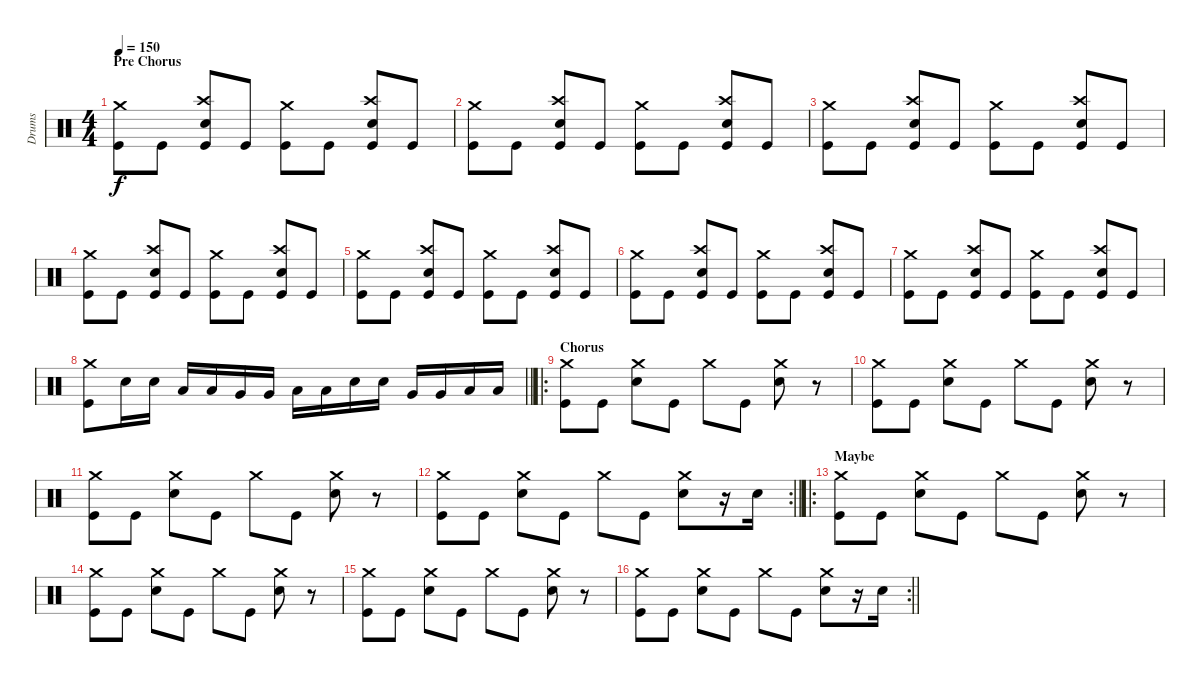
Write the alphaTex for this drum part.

\track ("Drums" "Drums") {instrument percussion}
\staff {score}
\articulation defaults
\ts (4 4)
\section ("" "Pre Chorus")
\tempo 150
\clef neutral
\ks c
("Crash medium (hit)" "Kick (hit)").8{dy f} "Kick (hit)".8 ("Crash high (hit)" "Snare (hit) 2" "Kick (hit)").8 "Kick (hit)".8 ("Crash medium (hit)" "Kick (hit)").8 "Kick (hit)".8 ("Crash high (hit)" "Snare (hit) 2" "Kick (hit)").8 "Kick (hit)".8 |
("Crash medium (hit)" "Kick (hit)").8 "Kick (hit)".8 ("Crash high (hit)" "Snare (hit) 2" "Kick (hit)").8 "Kick (hit)".8 ("Crash medium (hit)" "Kick (hit)").8 "Kick (hit)".8 ("Crash high (hit)" "Snare (hit) 2" "Kick (hit)").8 "Kick (hit)".8 |
("Crash medium (hit)" "Kick (hit)").8 "Kick (hit)".8 ("Crash high (hit)" "Snare (hit) 2" "Kick (hit)").8 "Kick (hit)".8 ("Crash medium (hit)" "Kick (hit)").8 "Kick (hit)".8 ("Crash high (hit)" "Snare (hit) 2" "Kick (hit)").8 "Kick (hit)".8 |
("Crash medium (hit)" "Kick (hit)").8 "Kick (hit)".8 ("Crash high (hit)" "Snare (hit) 2" "Kick (hit)").8 "Kick (hit)".8 ("Crash medium (hit)" "Kick (hit)").8 "Kick (hit)".8 ("Crash high (hit)" "Snare (hit) 2" "Kick (hit)").8 "Kick (hit)".8 |
("Crash medium (hit)" "Kick (hit)").8 "Kick (hit)".8 ("Crash high (hit)" "Snare (hit) 2" "Kick (hit)").8 "Kick (hit)".8 ("Crash medium (hit)" "Kick (hit)").8 "Kick (hit)".8 ("Crash high (hit)" "Snare (hit) 2" "Kick (hit)").8 "Kick (hit)".8 |
("Crash medium (hit)" "Kick (hit)").8 "Kick (hit)".8 ("Crash high (hit)" "Snare (hit) 2" "Kick (hit)").8 "Kick (hit)".8 ("Crash medium (hit)" "Kick (hit)").8 "Kick (hit)".8 ("Crash high (hit)" "Snare (hit) 2" "Kick (hit)").8 "Kick (hit)".8 |
("Crash medium (hit)" "Kick (hit)").8 "Kick (hit)".8 ("Crash high (hit)" "Snare (hit) 2" "Kick (hit)").8 "Kick (hit)".8 ("Crash medium (hit)" "Kick (hit)").8 "Kick (hit)".8 ("Crash high (hit)" "Snare (hit) 2" "Kick (hit)").8 "Kick (hit)".8 |
\barLineRight lightlight
("Crash medium (hit)" "Kick (hit)").8 "Snare (hit) 2".16 "Snare (hit) 2".16 "Low Tom (hit)".16 "Low Tom (hit)".16 "Very Low Tom (hit)".16 "Very Low Tom (hit)".16 "Low Floor Tom (hit)".16 "Low Floor Tom (hit)".16 "Snare (hit) 2".16 "Snare (hit) 2".16 "Very Low Tom (hit)".16 "Very Low Tom (hit)".16 "Low Floor Tom (hit)".16 "Low Floor Tom (hit)".16 |
\ro
\section ("" "Chorus")
("Crash medium (hit)" "Kick (hit)").8 "Kick (hit)".8 ("Crash medium (hit)" "Snare (hit) 2").8 "Kick (hit)".8 "Crash medium (hit)".8 "Kick (hit)".8 ("Crash medium (hit)" "Snare (hit) 2").8 r.8 |
("Crash medium (hit)" "Kick (hit)").8 "Kick (hit)".8 ("Crash medium (hit)" "Snare (hit) 2").8 "Kick (hit)".8 "Crash medium (hit)".8 "Kick (hit)".8 ("Crash medium (hit)" "Snare (hit) 2").8 r.8 |
("Crash medium (hit)" "Kick (hit)").8 "Kick (hit)".8 ("Crash medium (hit)" "Snare (hit) 2").8 "Kick (hit)".8 "Crash medium (hit)".8 "Kick (hit)".8 ("Crash medium (hit)" "Snare (hit) 2").8 r.8 |
\rc 2
\barLineRight lightlight
("Crash medium (hit)" "Kick (hit)").8 "Kick (hit)".8 ("Crash medium (hit)" "Snare (hit) 2").8 "Kick (hit)".8 "Crash medium (hit)".8 "Kick (hit)".8 ("Crash medium (hit)" "Snare (hit) 2").8 r.16 "Snare (hit) 2".16 |
\ro
\section ("" "Maybe")
("Crash medium (hit)" "Kick (hit)").8 "Kick (hit)".8 ("Crash medium (hit)" "Snare (hit) 2").8 "Kick (hit)".8 "Crash medium (hit)".8 "Kick (hit)".8 ("Crash medium (hit)" "Snare (hit) 2").8 r.8 |
("Crash medium (hit)" "Kick (hit)").8 "Kick (hit)".8 ("Crash medium (hit)" "Snare (hit) 2").8 "Kick (hit)".8 "Crash medium (hit)".8 "Kick (hit)".8 ("Crash medium (hit)" "Snare (hit) 2").8 r.8 |
("Crash medium (hit)" "Kick (hit)").8 "Kick (hit)".8 ("Crash medium (hit)" "Snare (hit) 2").8 "Kick (hit)".8 "Crash medium (hit)".8 "Kick (hit)".8 ("Crash medium (hit)" "Snare (hit) 2").8 r.8 |
\rc 2
\barLineRight lightlight
("Crash medium (hit)" "Kick (hit)").8 "Kick (hit)".8 ("Crash medium (hit)" "Snare (hit) 2").8 "Kick (hit)".8 "Crash medium (hit)".8 "Kick (hit)".8 ("Crash medium (hit)" "Snare (hit) 2").8 r.16 "Snare (hit) 2".16
